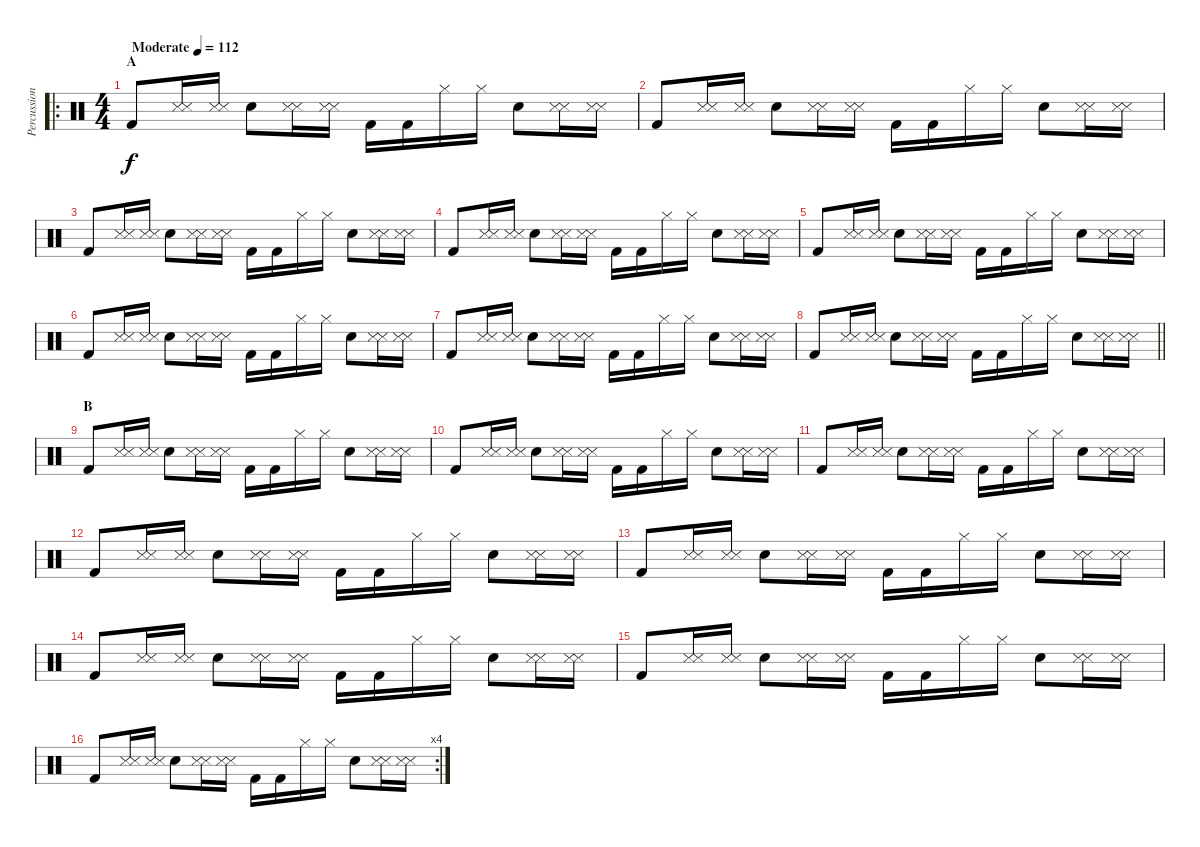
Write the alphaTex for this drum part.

\track ("Percussion" "Percussion") {instrument percussion}
\staff {score}
\articulation defaults
\ro
\ts (4 4)
\section ("" "A")
\tempo (112 "Moderate")
\clef neutral
\ks c "Kick (hit) 2".8{dy f}
("Snare (side stick) 3" "Metronome (hit)").16 ("Snare (side stick) 3" "Metronome (hit)").16 "Electric Snare (hit)".8 ("Snare (side stick) 3" "Metronome (hit)").16 ("Snare (side stick) 3" "Metronome (hit)").16 "Kick (hit) 2".16 "Kick (hit) 2".16 "Hi-Hat (closed)".16 "Hi-Hat (closed)".16 "Electric Snare (hit)".8 ("Snare (side stick) 3" "Metronome (hit)").16 ("Snare (side stick) 3" "Metronome (hit)").16 |
"Kick (hit) 2".8 ("Snare (side stick) 3" "Metronome (hit)").16 ("Snare (side stick) 3" "Metronome (hit)").16 "Electric Snare (hit)".8 ("Snare (side stick) 3" "Metronome (hit)").16 ("Snare (side stick) 3" "Metronome (hit)").16 "Kick (hit) 2".16 "Kick (hit) 2".16 "Hi-Hat (closed)".16 "Hi-Hat (closed)".16 "Electric Snare (hit)".8 ("Snare (side stick) 3" "Metronome (hit)").16 ("Snare (side stick) 3" "Metronome (hit)").16 |
"Kick (hit) 2".8 ("Snare (side stick) 3" "Metronome (hit)").16 ("Snare (side stick) 3" "Metronome (hit)").16 "Electric Snare (hit)".8 ("Snare (side stick) 3" "Metronome (hit)").16 ("Snare (side stick) 3" "Metronome (hit)").16 "Kick (hit) 2".16 "Kick (hit) 2".16 "Hi-Hat (closed)".16 "Hi-Hat (closed)".16 "Electric Snare (hit)".8 ("Snare (side stick) 3" "Metronome (hit)").16 ("Snare (side stick) 3" "Metronome (hit)").16 |
"Kick (hit) 2".8 ("Snare (side stick) 3" "Metronome (hit)").16 ("Snare (side stick) 3" "Metronome (hit)").16 "Electric Snare (hit)".8 ("Snare (side stick) 3" "Metronome (hit)").16 ("Snare (side stick) 3" "Metronome (hit)").16 "Kick (hit) 2".16 "Kick (hit) 2".16 "Hi-Hat (closed)".16 "Hi-Hat (closed)".16 "Electric Snare (hit)".8 ("Snare (side stick) 3" "Metronome (hit)").16 ("Snare (side stick) 3" "Metronome (hit)").16 |
"Kick (hit) 2".8 ("Snare (side stick) 3" "Metronome (hit)").16 ("Snare (side stick) 3" "Metronome (hit)").16 "Electric Snare (hit)".8 ("Snare (side stick) 3" "Metronome (hit)").16 ("Snare (side stick) 3" "Metronome (hit)").16 "Kick (hit) 2".16 "Kick (hit) 2".16 "Hi-Hat (closed)".16 "Hi-Hat (closed)".16 "Electric Snare (hit)".8 ("Snare (side stick) 3" "Metronome (hit)").16 ("Snare (side stick) 3" "Metronome (hit)").16 |
"Kick (hit) 2".8 ("Snare (side stick) 3" "Metronome (hit)").16 ("Snare (side stick) 3" "Metronome (hit)").16 "Electric Snare (hit)".8 ("Snare (side stick) 3" "Metronome (hit)").16 ("Snare (side stick) 3" "Metronome (hit)").16 "Kick (hit) 2".16 "Kick (hit) 2".16 "Hi-Hat (closed)".16 "Hi-Hat (closed)".16 "Electric Snare (hit)".8 ("Snare (side stick) 3" "Metronome (hit)").16 ("Snare (side stick) 3" "Metronome (hit)").16 |
"Kick (hit) 2".8 ("Snare (side stick) 3" "Metronome (hit)").16 ("Snare (side stick) 3" "Metronome (hit)").16 "Electric Snare (hit)".8 ("Snare (side stick) 3" "Metronome (hit)").16 ("Snare (side stick) 3" "Metronome (hit)").16 "Kick (hit) 2".16 "Kick (hit) 2".16 "Hi-Hat (closed)".16 "Hi-Hat (closed)".16 "Electric Snare (hit)".8 ("Snare (side stick) 3" "Metronome (hit)").16 ("Snare (side stick) 3" "Metronome (hit)").16 |
\barLineRight lightlight "Kick (hit) 2".8
("Snare (side stick) 3" "Metronome (hit)").16 ("Snare (side stick) 3" "Metronome (hit)").16 "Electric Snare (hit)".8 ("Snare (side stick) 3" "Metronome (hit)").16 ("Snare (side stick) 3" "Metronome (hit)").16 "Kick (hit) 2".16 "Kick (hit) 2".16 "Hi-Hat (closed)".16 "Hi-Hat (closed)".16 "Electric Snare (hit)".8 ("Snare (side stick) 3" "Metronome (hit)").16 ("Snare (side stick) 3" "Metronome (hit)").16 |
\section ("" "B")
"Kick (hit) 2".8 ("Snare (side stick) 3" "Metronome (hit)").16 ("Snare (side stick) 3" "Metronome (hit)").16 "Electric Snare (hit)".8 ("Snare (side stick) 3" "Metronome (hit)").16 ("Snare (side stick) 3" "Metronome (hit)").16 "Kick (hit) 2".16 "Kick (hit) 2".16 "Hi-Hat (closed)".16 "Hi-Hat (closed)".16 "Electric Snare (hit)".8 ("Snare (side stick) 3" "Metronome (hit)").16 ("Snare (side stick) 3" "Metronome (hit)").16 |
"Kick (hit) 2".8 ("Snare (side stick) 3" "Metronome (hit)").16 ("Snare (side stick) 3" "Metronome (hit)").16 "Electric Snare (hit)".8 ("Snare (side stick) 3" "Metronome (hit)").16 ("Snare (side stick) 3" "Metronome (hit)").16 "Kick (hit) 2".16 "Kick (hit) 2".16 "Hi-Hat (closed)".16 "Hi-Hat (closed)".16 "Electric Snare (hit)".8 ("Snare (side stick) 3" "Metronome (hit)").16 ("Snare (side stick) 3" "Metronome (hit)").16 |
"Kick (hit) 2".8 ("Snare (side stick) 3" "Metronome (hit)").16 ("Snare (side stick) 3" "Metronome (hit)").16 "Electric Snare (hit)".8 ("Snare (side stick) 3" "Metronome (hit)").16 ("Snare (side stick) 3" "Metronome (hit)").16 "Kick (hit) 2".16 "Kick (hit) 2".16 "Hi-Hat (closed)".16 "Hi-Hat (closed)".16 "Electric Snare (hit)".8 ("Snare (side stick) 3" "Metronome (hit)").16 ("Snare (side stick) 3" "Metronome (hit)").16 |
"Kick (hit) 2".8 ("Snare (side stick) 3" "Metronome (hit)").16 ("Snare (side stick) 3" "Metronome (hit)").16 "Electric Snare (hit)".8 ("Snare (side stick) 3" "Metronome (hit)").16 ("Snare (side stick) 3" "Metronome (hit)").16 "Kick (hit) 2".16 "Kick (hit) 2".16 "Hi-Hat (closed)".16 "Hi-Hat (closed)".16 "Electric Snare (hit)".8 ("Snare (side stick) 3" "Metronome (hit)").16 ("Snare (side stick) 3" "Metronome (hit)").16 |
"Kick (hit) 2".8 ("Snare (side stick) 3" "Metronome (hit)").16 ("Snare (side stick) 3" "Metronome (hit)").16 "Electric Snare (hit)".8 ("Snare (side stick) 3" "Metronome (hit)").16 ("Snare (side stick) 3" "Metronome (hit)").16 "Kick (hit) 2".16 "Kick (hit) 2".16 "Hi-Hat (closed)".16 "Hi-Hat (closed)".16 "Electric Snare (hit)".8 ("Snare (side stick) 3" "Metronome (hit)").16 ("Snare (side stick) 3" "Metronome (hit)").16 |
"Kick (hit) 2".8 ("Snare (side stick) 3" "Metronome (hit)").16 ("Snare (side stick) 3" "Metronome (hit)").16 "Electric Snare (hit)".8 ("Snare (side stick) 3" "Metronome (hit)").16 ("Snare (side stick) 3" "Metronome (hit)").16 "Kick (hit) 2".16 "Kick (hit) 2".16 "Hi-Hat (closed)".16 "Hi-Hat (closed)".16 "Electric Snare (hit)".8 ("Snare (side stick) 3" "Metronome (hit)").16 ("Snare (side stick) 3" "Metronome (hit)").16 |
"Kick (hit) 2".8 ("Snare (side stick) 3" "Metronome (hit)").16 ("Snare (side stick) 3" "Metronome (hit)").16 "Electric Snare (hit)".8 ("Snare (side stick) 3" "Metronome (hit)").16 ("Snare (side stick) 3" "Metronome (hit)").16 "Kick (hit) 2".16 "Kick (hit) 2".16 "Hi-Hat (closed)".16 "Hi-Hat (closed)".16 "Electric Snare (hit)".8 ("Snare (side stick) 3" "Metronome (hit)").16 ("Snare (side stick) 3" "Metronome (hit)").16 |
\rc 4 "Kick (hit) 2".8
("Snare (side stick) 3" "Metronome (hit)").16 ("Snare (side stick) 3" "Metronome (hit)").16 "Electric Snare (hit)".8 ("Snare (side stick) 3" "Metronome (hit)").16 ("Snare (side stick) 3" "Metronome (hit)").16 "Kick (hit) 2".16 "Kick (hit) 2".16 "Hi-Hat (closed)".16 "Hi-Hat (closed)".16 "Electric Snare (hit)".8 ("Snare (side stick) 3" "Metronome (hit)").16 ("Snare (side stick) 3" "Metronome (hit)").16
